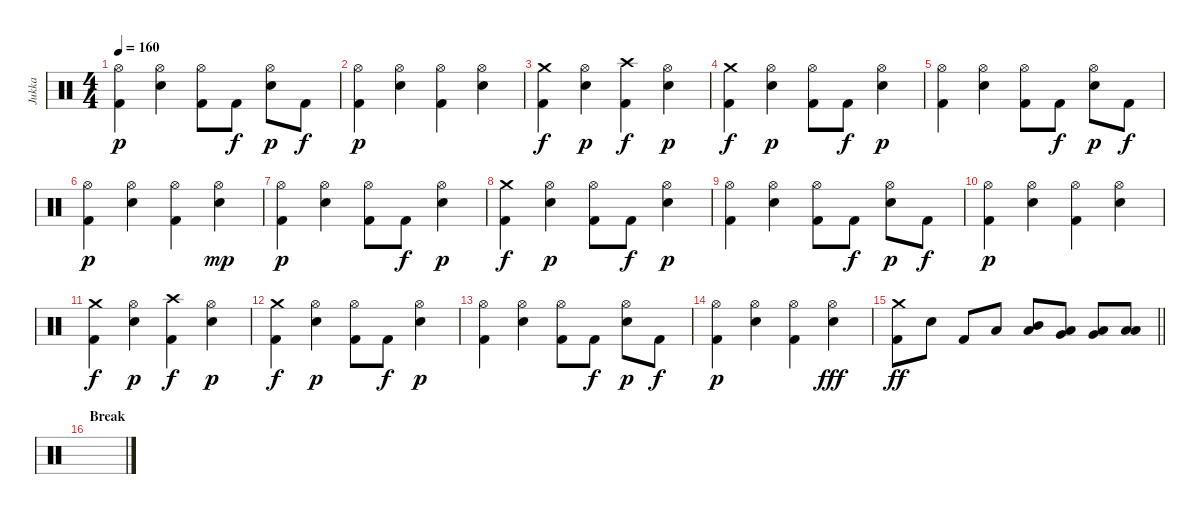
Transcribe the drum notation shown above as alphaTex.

\track ("Jukka" "Jukka") {instrument percussion}
\staff {score}
\articulation defaults
\ts (4 4)
\tempo 160
\clef neutral
\ks c
("Hi-Hat (open)" "Kick (hit) 2").4{dy p} ("Hi-Hat (open)" "Snare (hit) 2").4 ("Hi-Hat (open)" "Kick (hit) 2").8 "Kick (hit) 2".8{dy f} ("Hi-Hat (open)" "Snare (hit) 2").8{dy p} "Kick (hit) 2".8{dy f} |
("Hi-Hat (open)" "Kick (hit) 2").4{dy p} ("Hi-Hat (open)" "Snare (hit) 2").4 ("Hi-Hat (open)" "Kick (hit) 2").4 ("Hi-Hat (open)" "Snare (hit) 2").4 |
("Crash medium (hit)" "Kick (hit) 2").4{dy f} ("Hi-Hat (open)" "Snare (hit) 2").4{dy p} ("Crash high (hit)" "Kick (hit) 2").4{dy f} ("Hi-Hat (open)" "Snare (hit) 2").4{dy p} |
("Crash medium (hit)" "Kick (hit) 2").4{dy f} ("Hi-Hat (open)" "Snare (hit) 2").4{dy p} ("Hi-Hat (open)" "Kick (hit) 2").8 "Kick (hit) 2".8{dy f} ("Hi-Hat (open)" "Snare (hit) 2").4{dy p} |
("Hi-Hat (open)" "Kick (hit) 2").4 ("Hi-Hat (open)" "Snare (hit) 2").4 ("Hi-Hat (open)" "Kick (hit) 2").8 "Kick (hit) 2".8{dy f} ("Hi-Hat (open)" "Snare (hit) 2").8{dy p} "Kick (hit) 2".8{dy f} |
("Hi-Hat (open)" "Kick (hit) 2").4{dy p} ("Hi-Hat (open)" "Snare (hit) 2").4 ("Hi-Hat (open)" "Kick (hit) 2").4 ("Hi-Hat (open)" "Snare (hit) 2").4{dy mp} |
("Hi-Hat (open)" "Kick (hit) 2").4{dy p} ("Hi-Hat (open)" "Snare (hit) 2").4 ("Hi-Hat (open)" "Kick (hit) 2").8 "Kick (hit) 2".8{dy f} ("Hi-Hat (open)" "Snare (hit) 2").4{dy p} |
("Crash medium (hit)" "Kick (hit) 2").4{dy f} ("Hi-Hat (open)" "Snare (hit) 2").4{dy p} ("Hi-Hat (open)" "Kick (hit) 2").8 "Kick (hit) 2".8{dy f} ("Hi-Hat (open)" "Snare (hit) 2").4{dy p} |
("Hi-Hat (open)" "Kick (hit) 2").4 ("Hi-Hat (open)" "Snare (hit) 2").4 ("Hi-Hat (open)" "Kick (hit) 2").8 "Kick (hit) 2".8{dy f} ("Hi-Hat (open)" "Snare (hit) 2").8{dy p} "Kick (hit) 2".8{dy f} |
("Hi-Hat (open)" "Kick (hit) 2").4{dy p} ("Hi-Hat (open)" "Snare (hit) 2").4 ("Hi-Hat (open)" "Kick (hit) 2").4 ("Hi-Hat (open)" "Snare (hit) 2").4 |
("Crash medium (hit)" "Kick (hit) 2").4{dy f} ("Hi-Hat (open)" "Snare (hit) 2").4{dy p} ("Crash high (hit)" "Kick (hit) 2").4{dy f} ("Hi-Hat (open)" "Snare (hit) 2").4{dy p} |
("Crash medium (hit)" "Kick (hit) 2").4{dy f} ("Hi-Hat (open)" "Snare (hit) 2").4{dy p} ("Hi-Hat (open)" "Kick (hit) 2").8 "Kick (hit) 2".8{dy f} ("Hi-Hat (open)" "Snare (hit) 2").4{dy p} |
("Hi-Hat (open)" "Kick (hit) 2").4 ("Hi-Hat (open)" "Snare (hit) 2").4 ("Hi-Hat (open)" "Kick (hit) 2").8 "Kick (hit) 2".8{dy f} ("Hi-Hat (open)" "Snare (hit) 2").8{dy p} "Kick (hit) 2".8{dy f} |
("Hi-Hat (open)" "Kick (hit) 2").4{dy p} ("Hi-Hat (open)" "Snare (hit) 2").4 ("Hi-Hat (open)" "Kick (hit) 2").4 ("Hi-Hat (open)" "Snare (hit) 2").4{dy fff} |
\barLineRight lightlight
("Crash medium (hit)" "Kick (hit) 2").8{dy ff} "Snare (hit) 2".8 "Kick (hit) 2".8 "Low Floor Tom (hit)".8 ("Mid Tom (hit)" "Low Floor Tom (hit)").8 ("Low Floor Tom (hit)" "Very Low Tom (hit)").8 ("Low Tom (hit)" "Very Low Tom (hit)").8 ("Low Floor Tom (hit)" "Low Floor Tom (hit)").8 |
\section ("" "Break")
